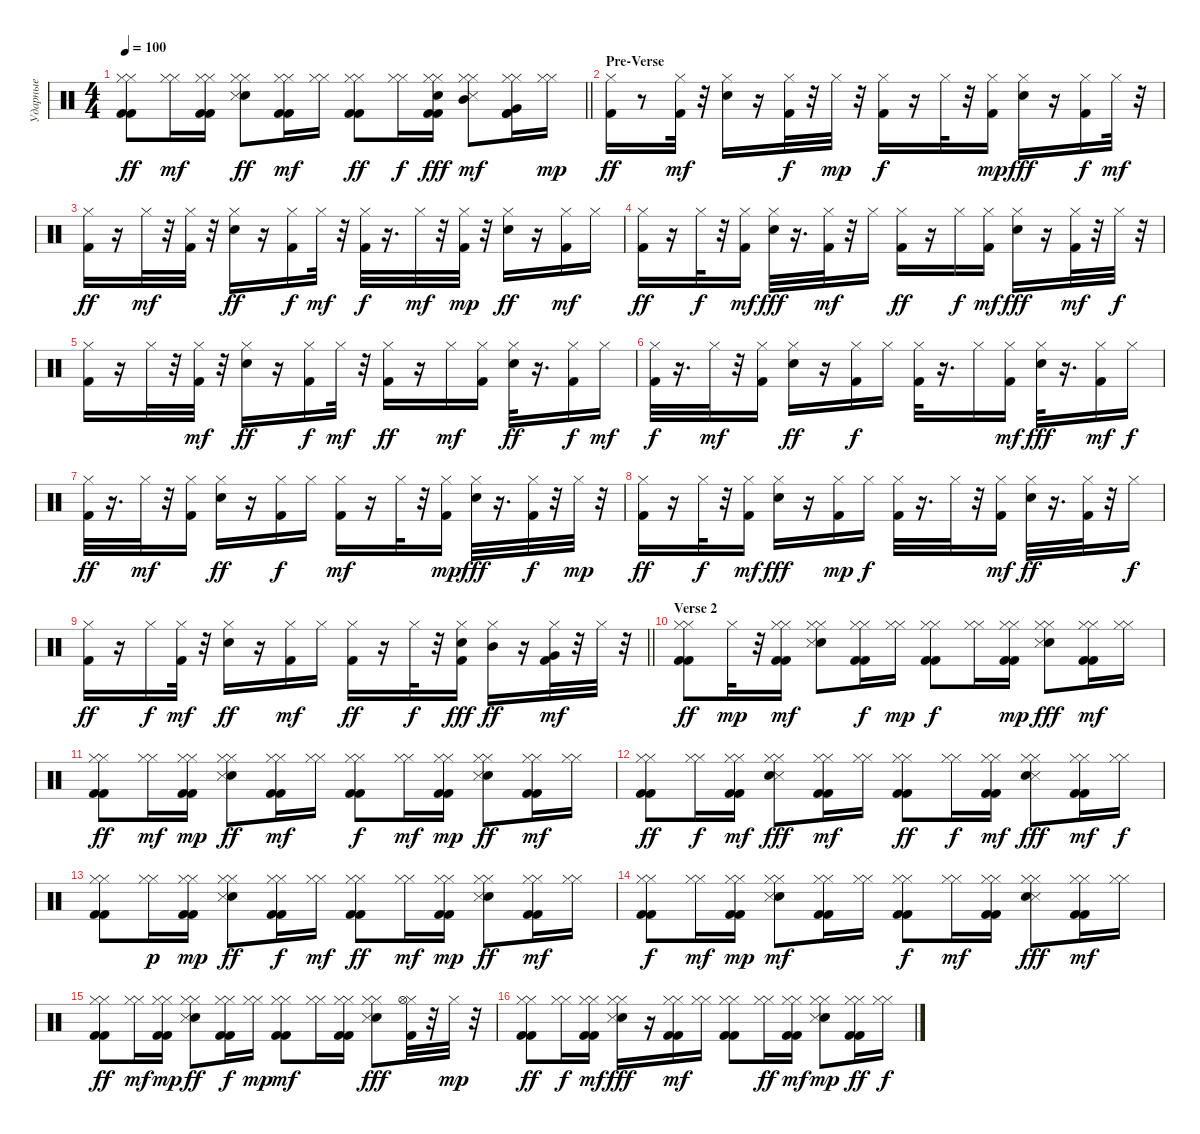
\track ("Ударные" "Ударные") {instrument percussion}
\staff {score}
\articulation defaults
\ts (4 4)
\tempo 100
\clef neutral
\barLineRight lightlight
\ks c
("Hi-Hat (closed)" "Kick (hit) 2" "Hi-Hat (closed)" "Kick (hit) 2").8{dy ff} ("Hi-Hat (closed)" "Hi-Hat (closed)").16{dy mf} ("Kick (hit) 2" "Hi-Hat (closed)" "Hi-Hat (closed)" "Kick (hit) 2").16 ("Hi-Hat (closed)" "Snare (hit) 2" "Hi-Hat (closed)" "Snare (side stick) 3").8{dy ff} ("Hi-Hat (closed)" "Kick (hit) 2" "Hi-Hat (closed)" "Kick (hit) 2").16{dy mf} ("Hi-Hat (closed)" "Hi-Hat (closed)").16 ("Hi-Hat (closed)" "Kick (hit) 2" "Kick (hit) 2" "Hi-Hat (closed)").8{dy ff} ("Hi-Hat (closed)" "Hi-Hat (closed)").16{dy f} ("Hi-Hat (closed)" "Hi-Hat (closed)" "Kick (hit) 2" "Kick (hit) 2" "Snare (hit) 2").16{dy fff} ("Hi-Hat (closed)" "Hi-Hat (closed)" "Mid Tom (hit)" "Snare (side stick) 3").8{dy mf} ("Kick (hit) 2" "Hi-Hat (closed)" "Hi-Hat (closed)" "Kick (hit) 2" "Very Low Tom (hit)").16 ("Hi-Hat (closed)" "Hi-Hat (closed)").16{dy mp} |
\section ("" "Pre-Verse")
("Kick (hit) 2" "Hi-Hat (closed)").16{dy ff} r.8 ("Hi-Hat (closed)" "Kick (hit) 2").32{dy mf} r.32 ("Snare (hit) 2" "Hi-Hat (closed)").16 r.16 ("Kick (hit) 2" "Hi-Hat (closed)").32{dy f} r.32 "Hi-Hat (closed)".32{dy mp} r.32 ("Kick (hit) 2" "Hi-Hat (closed)").16{dy f} r.16 "Hi-Hat (closed)".32 r.32 ("Kick (hit) 2" "Hi-Hat (closed)").16{dy mp} ("Hi-Hat (closed)" "Snare (hit) 2").16{dy fff} r.16 ("Kick (hit) 2" "Hi-Hat (closed)").16{dy f} "Hi-Hat (closed)".32{dy mf} r.32 |
("Kick (hit) 2" "Hi-Hat (closed)").16{dy ff} r.16 "Hi-Hat (closed)".32{dy mf} r.32 ("Kick (hit) 2" "Hi-Hat (closed)").32 r.32 ("Hi-Hat (closed)" "Snare (hit) 2").16{dy ff} r.16 ("Kick (hit) 2" "Hi-Hat (closed)").16{dy f} "Hi-Hat (closed)".32{dy mf} r.32 ("Kick (hit) 2" "Hi-Hat (closed)").32{dy f} r.16{d} "Hi-Hat (closed)".32{dy mf} r.32 ("Kick (hit) 2" "Hi-Hat (closed)").32{dy mp} r.32 ("Hi-Hat (closed)" "Snare (hit) 2").16{dy ff} r.16 ("Hi-Hat (closed)" "Kick (hit) 2").16{dy mf} "Hi-Hat (closed)".16 |
("Hi-Hat (closed)" "Kick (hit) 2").16{dy ff} r.16 "Hi-Hat (closed)".32{dy f} r.32 ("Kick (hit) 2" "Hi-Hat (closed)").16{dy mf} ("Hi-Hat (closed)" "Snare (hit) 2").32{dy fff} r.16{d} ("Kick (hit) 2" "Hi-Hat (closed)").32{dy mf} r.32 "Hi-Hat (closed)".16 ("Hi-Hat (closed)" "Kick (hit) 2").16{dy ff} r.16 "Hi-Hat (closed)".16{dy f} ("Kick (hit) 2" "Hi-Hat (closed)").16{dy mf} ("Hi-Hat (closed)" "Snare (hit) 2").16{dy fff} r.16 ("Kick (hit) 2" "Hi-Hat (closed)").32{dy mf} r.32 "Hi-Hat (closed)".32{dy f} r.32 |
("Hi-Hat (closed)" "Kick (hit) 2").16 r.16 "Hi-Hat (closed)".32 r.32 ("Kick (hit) 2" "Hi-Hat (closed)").32{dy mf} r.32 ("Hi-Hat (closed)" "Snare (hit) 2").16{dy ff} r.16 ("Kick (hit) 2" "Hi-Hat (closed)").16{dy f} "Hi-Hat (closed)".32{dy mf} r.32 ("Kick (hit) 2" "Hi-Hat (closed)").16{dy ff} r.16 "Hi-Hat (closed)".16{dy mf} ("Kick (hit) 2" "Hi-Hat (closed)").16 ("Hi-Hat (closed)" "Snare (hit) 2").32{dy ff} r.16{d} ("Kick (hit) 2" "Hi-Hat (closed)").16{dy f} "Hi-Hat (closed)".16{dy mf} |
("Kick (hit) 2" "Hi-Hat (closed)").32{dy f} r.16{d} "Hi-Hat (closed)".32{dy mf} r.32 ("Kick (hit) 2" "Hi-Hat (closed)").16 ("Hi-Hat (closed)" "Snare (hit) 2").16{dy ff} r.16 ("Kick (hit) 2" "Hi-Hat (closed)").16{dy f} "Hi-Hat (closed)".16 ("Kick (hit) 2" "Hi-Hat (closed)").32 r.16{d} "Hi-Hat (closed)".16 ("Kick (hit) 2" "Hi-Hat (closed)").16{dy mf} ("Hi-Hat (closed)" "Snare (hit) 2").32{dy fff} r.16{d} ("Kick (hit) 2" "Hi-Hat (closed)").16{dy mf} "Hi-Hat (closed)".16{dy f} |
("Kick (hit) 2" "Hi-Hat (closed)").32{dy ff} r.16{d} "Hi-Hat (closed)".32{dy mf} r.32 ("Kick (hit) 2" "Hi-Hat (closed)").16 ("Hi-Hat (closed)" "Snare (hit) 2").16{dy ff} r.16 ("Kick (hit) 2" "Hi-Hat (closed)").16{dy f} "Hi-Hat (closed)".16 ("Hi-Hat (closed)" "Kick (hit) 2").16{dy mf} r.16 "Hi-Hat (closed)".32 r.32 ("Kick (hit) 2" "Hi-Hat (closed)").16{dy mp} ("Hi-Hat (closed)" "Snare (hit) 2").32{dy fff} r.16{d} ("Kick (hit) 2" "Hi-Hat (closed)").32{dy f} r.32 "Hi-Hat (closed)".32{dy mp} r.32 |
("Kick (hit) 2" "Hi-Hat (closed)").16{dy ff} r.16 "Hi-Hat (closed)".32{dy f} r.32 ("Hi-Hat (closed)" "Kick (hit) 2").16{dy mf} ("Hi-Hat (closed)" "Snare (hit) 2").16{dy fff} r.16 ("Kick (hit) 2" "Hi-Hat (closed)").16{dy mp} "Hi-Hat (closed)".16{dy f} ("Kick (hit) 2" "Hi-Hat (closed)").32 r.16{d} "Hi-Hat (closed)".32 r.32 ("Kick (hit) 2" "Hi-Hat (closed)").16{dy mf} ("Hi-Hat (closed)" "Snare (hit) 2").32{dy ff} r.16{d} ("Kick (hit) 2" "Hi-Hat (closed)").32 r.32 "Hi-Hat (closed)".16{dy f} |
\barLineRight lightlight
("Hi-Hat (closed)" "Kick (hit) 2").16{dy ff} r.16 "Hi-Hat (closed)".16{dy f} ("Kick (hit) 2" "Hi-Hat (closed)").32{dy mf} r.32 ("Hi-Hat (closed)" "Snare (hit) 2").16{dy ff} r.16 ("Hi-Hat (closed)" "Kick (hit) 2").16{dy mf} "Hi-Hat (closed)".16 ("Hi-Hat (closed)" "Kick (hit) 2").16{dy ff} r.16 "Hi-Hat (closed)".32{dy f} r.32 ("Hi-Hat (closed)" "Kick (hit) 2" "Snare (hit) 2").16{dy fff} ("Hi-Hat (closed)" "Mid Tom (hit)").16{dy ff} r.16 ("Kick (hit) 2" "Hi-Hat (closed)" "Very Low Tom (hit)").32{dy mf} r.32 "Hi-Hat (closed)".32 r.32 |
\section ("" "Verse 2")
("Kick (hit) 2" "Hi-Hat (closed)" "Kick (hit) 2" "Hi-Hat (closed)").8{dy ff} "Hi-Hat (closed)".32{dy mp} r.32 ("Hi-Hat (closed)" "Kick (hit) 2" "Hi-Hat (closed)" "Kick (hit) 2").16{dy mf} ("Snare (hit) 2" "Hi-Hat (closed)" "Hi-Hat (closed)" "Snare (side stick) 3").8 ("Kick (hit) 2" "Hi-Hat (closed)" "Hi-Hat (closed)" "Kick (hit) 2").16{dy f} ("Hi-Hat (closed)" "Hi-Hat (closed)").16{dy mp} ("Kick (hit) 2" "Hi-Hat (closed)" "Kick (hit) 2" "Hi-Hat (closed)").8{dy f} ("Hi-Hat (closed)" "Hi-Hat (closed)").16 ("Kick (hit) 2" "Hi-Hat (closed)" "Kick (hit) 2" "Hi-Hat (closed)").16{dy mp} ("Hi-Hat (closed)" "Hi-Hat (closed)" "Snare (hit) 2" "Snare (side stick) 3").8{dy fff} ("Kick (hit) 2" "Hi-Hat (closed)" "Kick (hit) 2" "Hi-Hat (closed)").16{dy mf} ("Hi-Hat (closed)" "Hi-Hat (closed)").16 |
("Kick (hit) 2" "Hi-Hat (closed)" "Hi-Hat (closed)" "Kick (hit) 2").8{dy ff} ("Hi-Hat (closed)" "Hi-Hat (closed)").16{dy mf} ("Kick (hit) 2" "Hi-Hat (closed)" "Kick (hit) 2" "Hi-Hat (closed)").16{dy mp} ("Hi-Hat (closed)" "Snare (hit) 2" "Hi-Hat (closed)" "Snare (side stick) 3").8{dy ff} ("Kick (hit) 2" "Hi-Hat (closed)" "Kick (hit) 2" "Hi-Hat (closed)").16{dy mf} ("Hi-Hat (closed)" "Hi-Hat (closed)").16 ("Kick (hit) 2" "Hi-Hat (closed)" "Hi-Hat (closed)" "Kick (hit) 2").8{dy f} ("Hi-Hat (closed)" "Hi-Hat (closed)").16{dy mf} ("Kick (hit) 2" "Hi-Hat (closed)" "Kick (hit) 2" "Hi-Hat (closed)").16{dy mp} ("Hi-Hat (closed)" "Hi-Hat (closed)" "Snare (hit) 2" "Snare (side stick) 3").8{dy ff} ("Hi-Hat (closed)" "Kick (hit) 2" "Kick (hit) 2" "Hi-Hat (closed)").16{dy mf} ("Hi-Hat (closed)" "Hi-Hat (closed)").16 |
("Hi-Hat (closed)" "Kick (hit) 2" "Kick (hit) 2" "Hi-Hat (closed)").8{dy ff} ("Hi-Hat (closed)" "Hi-Hat (closed)").16{dy f} ("Kick (hit) 2" "Hi-Hat (closed)" "Kick (hit) 2" "Hi-Hat (closed)").16{dy mf} ("Hi-Hat (closed)" "Hi-Hat (closed)" "Snare (side stick) 3" "Snare (hit) 2").8{dy fff} ("Kick (hit) 2" "Hi-Hat (closed)" "Kick (hit) 2" "Hi-Hat (closed)").16{dy mf} ("Hi-Hat (closed)" "Hi-Hat (closed)").16 ("Hi-Hat (closed)" "Kick (hit) 2" "Kick (hit) 2" "Hi-Hat (closed)").8{dy ff} ("Hi-Hat (closed)" "Hi-Hat (closed)").16{dy f} ("Kick (hit) 2" "Hi-Hat (closed)" "Hi-Hat (closed)" "Kick (hit) 2").16{dy mf} ("Hi-Hat (closed)" "Hi-Hat (closed)" "Snare (side stick) 3" "Snare (hit) 2").8{dy fff} ("Kick (hit) 2" "Hi-Hat (closed)" "Kick (hit) 2" "Hi-Hat (closed)").16{dy mf} ("Hi-Hat (closed)" "Hi-Hat (closed)").16{dy f} |
("Hi-Hat (closed)" "Kick (hit) 2" "Kick (hit) 2" "Hi-Hat (closed)").8 ("Hi-Hat (closed)" "Hi-Hat (closed)").16{dy p} ("Kick (hit) 2" "Hi-Hat (closed)" "Kick (hit) 2" "Hi-Hat (closed)").16{dy mp} ("Hi-Hat (closed)" "Hi-Hat (closed)" "Snare (hit) 2" "Snare (side stick) 3").8{dy ff} ("Kick (hit) 2" "Kick (hit) 2" "Hi-Hat (closed)" "Hi-Hat (closed)").16{dy f} ("Hi-Hat (closed)" "Hi-Hat (closed)").16{dy mf} ("Kick (hit) 2" "Hi-Hat (closed)" "Kick (hit) 2" "Hi-Hat (closed)").8{dy ff} ("Hi-Hat (closed)" "Hi-Hat (closed)").16{dy mf} ("Kick (hit) 2" "Hi-Hat (closed)" "Kick (hit) 2" "Hi-Hat (closed)").16{dy mp} ("Hi-Hat (closed)" "Hi-Hat (closed)" "Snare (hit) 2" "Snare (side stick) 3").8{dy ff} ("Kick (hit) 2" "Hi-Hat (closed)" "Kick (hit) 2" "Hi-Hat (closed)").16{dy mf} ("Hi-Hat (closed)" "Hi-Hat (closed)").16 |
("Kick (hit) 2" "Hi-Hat (closed)" "Kick (hit) 2" "Hi-Hat (closed)").8{dy f} ("Hi-Hat (closed)" "Hi-Hat (closed)").16{dy mf} ("Kick (hit) 2" "Hi-Hat (closed)" "Hi-Hat (closed)" "Kick (hit) 2").16{dy mp} ("Hi-Hat (closed)" "Snare (hit) 2" "Hi-Hat (closed)" "Snare (side stick) 3").8{dy mf} ("Kick (hit) 2" "Hi-Hat (closed)" "Kick (hit) 2" "Hi-Hat (closed)").16 ("Hi-Hat (closed)" "Hi-Hat (closed)").16 ("Kick (hit) 2" "Hi-Hat (closed)" "Kick (hit) 2" "Hi-Hat (closed)").8{dy f} ("Hi-Hat (closed)" "Hi-Hat (closed)").16{dy mf} ("Kick (hit) 2" "Hi-Hat (closed)" "Kick (hit) 2" "Hi-Hat (closed)").16 ("Hi-Hat (closed)" "Hi-Hat (closed)" "Snare (side stick) 3" "Snare (hit) 2").8{dy fff} ("Kick (hit) 2" "Hi-Hat (closed)" "Kick (hit) 2" "Hi-Hat (closed)").16{dy mf} ("Hi-Hat (closed)" "Hi-Hat (closed)").16 |
("Kick (hit) 2" "Hi-Hat (closed)" "Kick (hit) 2" "Hi-Hat (closed)").8{dy ff} ("Hi-Hat (closed)" "Hi-Hat (closed)").16{dy mf} ("Kick (hit) 2" "Hi-Hat (closed)" "Kick (hit) 2" "Hi-Hat (closed)").16{dy mp} ("Hi-Hat (closed)" "Hi-Hat (closed)" "Snare (hit) 2" "Snare (side stick) 3").8{dy ff} ("Kick (hit) 2" "Hi-Hat (closed)" "Kick (hit) 2" "Hi-Hat (closed)").16{dy f} ("Hi-Hat (closed)" "Hi-Hat (closed)").16{dy mp} ("Hi-Hat (closed)" "Kick (hit) 2" "Kick (hit) 2" "Hi-Hat (closed)").8{dy mf} ("Hi-Hat (closed)" "Hi-Hat (closed)").16 ("Kick (hit) 2" "Hi-Hat (closed)" "Kick (hit) 2" "Hi-Hat (closed)").16 ("Hi-Hat (closed)" "Hi-Hat (closed)" "Snare (hit) 2" "Snare (side stick) 3").8{dy fff} ("Kick (hit) 2" "Hi-Hat (closed)" "Hi-Hat (open)").32 r.32 "Hi-Hat (closed)".32{dy mp} r.32 |
("Kick (hit) 2" "Hi-Hat (closed)" "Hi-Hat (closed)" "Kick (hit) 2").8{dy ff} ("Hi-Hat (closed)" "Hi-Hat (closed)").16{dy f} ("Hi-Hat (closed)" "Kick (hit) 2" "Hi-Hat (closed)" "Kick (hit) 2").16{dy mf} ("Hi-Hat (closed)" "Hi-Hat (closed)" "Snare (hit) 2" "Snare (side stick) 3").16{dy fff} r.16 ("Kick (hit) 2" "Hi-Hat (closed)" "Kick (hit) 2" "Hi-Hat (closed)").16{dy mf} ("Hi-Hat (closed)" "Hi-Hat (closed)").16 ("Kick (hit) 2" "Hi-Hat (closed)" "Hi-Hat (closed)" "Kick (hit) 2").8 ("Hi-Hat (closed)" "Hi-Hat (closed)").16{dy ff} ("Kick (hit) 2" "Hi-Hat (closed)" "Kick (hit) 2" "Hi-Hat (closed)").16{dy mf} ("Hi-Hat (closed)" "Snare (hit) 2" "Hi-Hat (closed)" "Snare (side stick) 3").8{dy mp} ("Kick (hit) 2" "Hi-Hat (closed)" "Hi-Hat (closed)" "Kick (hit) 2").16{dy ff} ("Hi-Hat (closed)" "Hi-Hat (closed)").16{dy f}
